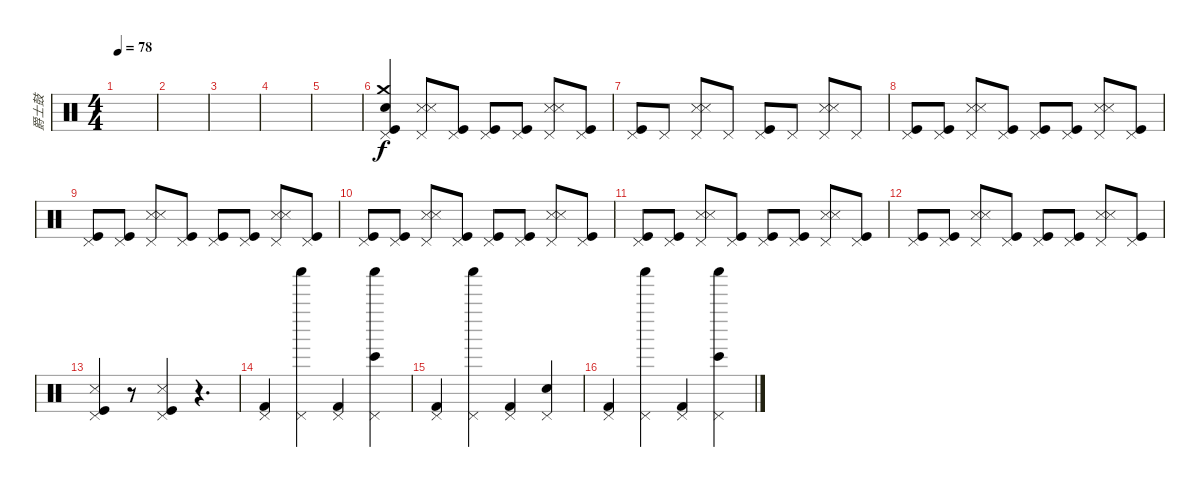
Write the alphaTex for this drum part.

\track ("爵士鼓" "爵士鼓") {instrument percussion}
\staff {score}
\articulation defaults
\ts (4 4)
\tempo 78
\clef neutral
\ks c
|
|
|
|
|
("Pedal Hi-Hat (hit)" "Kick (hit)" "Crash medium (hit)" "Snare (hit) 2").4 ("Pedal Hi-Hat (hit)" "Metronome (hit)" "Snare (side stick) 3").8 ("Pedal Hi-Hat (hit)" "Kick (hit)").8 ("Pedal Hi-Hat (hit)" "Kick (hit)").8 ("Pedal Hi-Hat (hit)" "Kick (hit)").8 ("Pedal Hi-Hat (hit)" "Metronome (hit)" "Snare (side stick) 3").8 ("Pedal Hi-Hat (hit)" "Kick (hit)").8 |
("Pedal Hi-Hat (hit)" "Kick (hit)").8 "Pedal Hi-Hat (hit)".8 ("Pedal Hi-Hat (hit)" "Metronome (hit)" "Snare (side stick) 3").8 "Pedal Hi-Hat (hit)".8 ("Pedal Hi-Hat (hit)" "Kick (hit)").8 "Pedal Hi-Hat (hit)".8 ("Pedal Hi-Hat (hit)" "Metronome (hit)" "Snare (side stick) 3").8 "Pedal Hi-Hat (hit)".8 |
("Pedal Hi-Hat (hit)" "Kick (hit)").8 ("Pedal Hi-Hat (hit)" "Kick (hit)").8 ("Pedal Hi-Hat (hit)" "Metronome (hit)" "Snare (side stick) 3").8 ("Pedal Hi-Hat (hit)" "Kick (hit)").8 ("Pedal Hi-Hat (hit)" "Kick (hit)").8 ("Pedal Hi-Hat (hit)" "Kick (hit)").8 ("Pedal Hi-Hat (hit)" "Metronome (hit)" "Snare (side stick) 3").8 ("Pedal Hi-Hat (hit)" "Kick (hit)").8 |
("Pedal Hi-Hat (hit)" "Kick (hit)").8 ("Pedal Hi-Hat (hit)" "Kick (hit)").8 ("Pedal Hi-Hat (hit)" "Metronome (hit)" "Snare (side stick) 3").8 ("Pedal Hi-Hat (hit)" "Kick (hit)").8 ("Pedal Hi-Hat (hit)" "Kick (hit)").8 ("Pedal Hi-Hat (hit)" "Kick (hit)").8 ("Pedal Hi-Hat (hit)" "Metronome (hit)" "Snare (side stick) 3").8 ("Pedal Hi-Hat (hit)" "Kick (hit)").8 |
("Pedal Hi-Hat (hit)" "Kick (hit)").8 ("Pedal Hi-Hat (hit)" "Kick (hit)").8 ("Pedal Hi-Hat (hit)" "Metronome (hit)" "Snare (side stick) 3").8 ("Pedal Hi-Hat (hit)" "Kick (hit)").8 ("Pedal Hi-Hat (hit)" "Kick (hit)").8 ("Pedal Hi-Hat (hit)" "Kick (hit)").8 ("Pedal Hi-Hat (hit)" "Metronome (hit)" "Snare (side stick) 3").8 ("Pedal Hi-Hat (hit)" "Kick (hit)").8 |
("Pedal Hi-Hat (hit)" "Kick (hit)").8 ("Pedal Hi-Hat (hit)" "Kick (hit)").8 ("Pedal Hi-Hat (hit)" "Metronome (hit)" "Snare (side stick) 3").8 ("Pedal Hi-Hat (hit)" "Kick (hit)").8 ("Pedal Hi-Hat (hit)" "Kick (hit)").8 ("Pedal Hi-Hat (hit)" "Kick (hit)").8 ("Pedal Hi-Hat (hit)" "Metronome (hit)" "Snare (side stick) 3").8 ("Pedal Hi-Hat (hit)" "Kick (hit)").8 |
("Pedal Hi-Hat (hit)" "Kick (hit)").8 ("Pedal Hi-Hat (hit)" "Kick (hit)").8 ("Pedal Hi-Hat (hit)" "Metronome (hit)" "Snare (side stick) 3").8 ("Pedal Hi-Hat (hit)" "Kick (hit)").8 ("Pedal Hi-Hat (hit)" "Kick (hit)").8 ("Pedal Hi-Hat (hit)" "Kick (hit)").8 ("Pedal Hi-Hat (hit)" "Metronome (hit)" "Snare (side stick) 3").8 ("Pedal Hi-Hat (hit)" "Kick (hit)").8 |
("Pedal Hi-Hat (hit)" "Kick (hit)" "Metronome (hit)").4 r.8 ("Pedal Hi-Hat (hit)" "Kick (hit)" "Snare (side stick) 3").4 r.4{d} |
("Kick (hit) 2" "Pedal Hi-Hat (hit)").4 ("Shaker (hit)" "Pedal Hi-Hat (hit)").4 ("Kick (hit) 2" "Pedal Hi-Hat (hit)").4 ("Shaker (hit)" "Bongo High (hit)" "Pedal Hi-Hat (hit)").4 |
("Kick (hit) 2" "Pedal Hi-Hat (hit)").4 ("Shaker (hit)" "Pedal Hi-Hat (hit)").4 ("Kick (hit) 2" "Pedal Hi-Hat (hit)").4 ("Snare (hit) 2" "Pedal Hi-Hat (hit)").4 |
("Kick (hit) 2" "Pedal Hi-Hat (hit)").4 ("Shaker (hit)" "Pedal Hi-Hat (hit)").4 ("Kick (hit) 2" "Pedal Hi-Hat (hit)").4 ("Shaker (hit)" "Bongo High (hit)" "Pedal Hi-Hat (hit)").4
